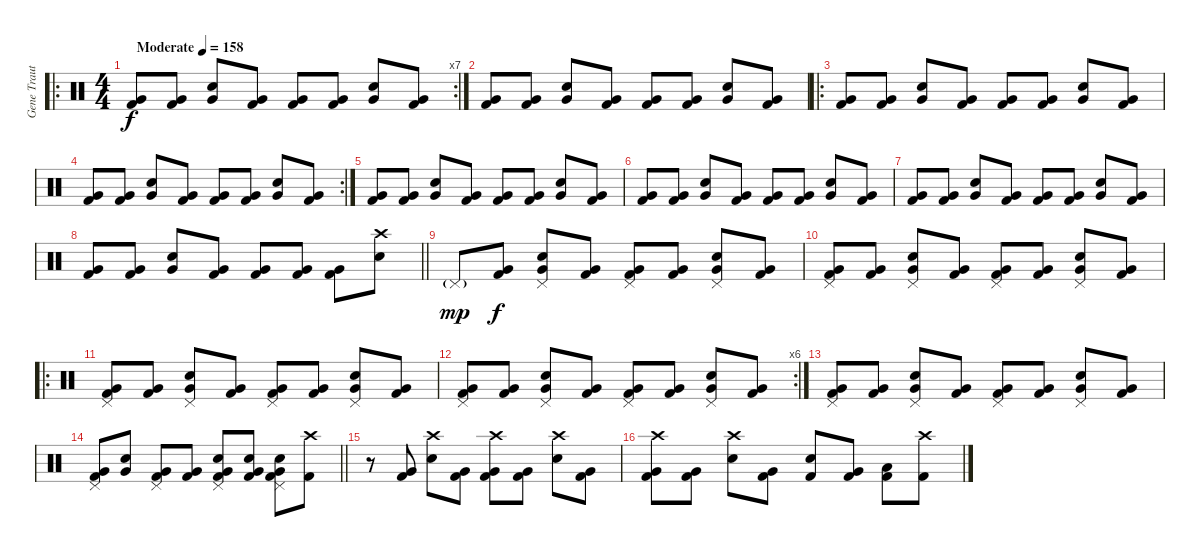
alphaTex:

\track ("Gene Trautmann" "Gene Traut") {instrument percussion}
\staff {score}
\articulation defaults
\ro
\rc 7
\ts (4 4)
\tempo (158 "Moderate")
\clef neutral
\ks c
("Very Low Tom (hit)" "Kick (hit) 2").8{dy f volume 9} ("Very Low Tom (hit)" "Kick (hit) 2").8 ("Electric Snare (hit)" "Very Low Tom (hit)").8 ("Very Low Tom (hit)" "Kick (hit) 2").8 ("Very Low Tom (hit)" "Kick (hit) 2").8 ("Very Low Tom (hit)" "Kick (hit) 2").8 ("Electric Snare (hit)" "Very Low Tom (hit)").8 ("Very Low Tom (hit)" "Kick (hit) 2").8 |
("Very Low Tom (hit)" "Kick (hit) 2").8 ("Very Low Tom (hit)" "Kick (hit) 2").8 ("Electric Snare (hit)" "Very Low Tom (hit)").8 ("Very Low Tom (hit)" "Kick (hit) 2").8 ("Very Low Tom (hit)" "Kick (hit) 2").8 ("Very Low Tom (hit)" "Kick (hit) 2").8 ("Electric Snare (hit)" "Very Low Tom (hit)").8 ("Very Low Tom (hit)" "Kick (hit) 2").8 |
\ro
("Very Low Tom (hit)" "Kick (hit) 2").8 ("Very Low Tom (hit)" "Kick (hit) 2").8 ("Electric Snare (hit)" "Very Low Tom (hit)").8 ("Very Low Tom (hit)" "Kick (hit) 2").8 ("Very Low Tom (hit)" "Kick (hit) 2").8 ("Very Low Tom (hit)" "Kick (hit) 2").8 ("Electric Snare (hit)" "Very Low Tom (hit)").8 ("Very Low Tom (hit)" "Kick (hit) 2").8 |
\rc 2
("Very Low Tom (hit)" "Kick (hit) 2").8 ("Very Low Tom (hit)" "Kick (hit) 2").8 ("Electric Snare (hit)" "Very Low Tom (hit)").8 ("Very Low Tom (hit)" "Kick (hit) 2").8 ("Very Low Tom (hit)" "Kick (hit) 2").8 ("Very Low Tom (hit)" "Kick (hit) 2").8 ("Electric Snare (hit)" "Very Low Tom (hit)").8 ("Very Low Tom (hit)" "Kick (hit) 2").8 |
("Very Low Tom (hit)" "Kick (hit) 2").8 ("Very Low Tom (hit)" "Kick (hit) 2").8 ("Electric Snare (hit)" "Very Low Tom (hit)").8 ("Very Low Tom (hit)" "Kick (hit) 2").8 ("Very Low Tom (hit)" "Kick (hit) 2").8 ("Very Low Tom (hit)" "Kick (hit) 2").8 ("Electric Snare (hit)" "Very Low Tom (hit)").8 ("Very Low Tom (hit)" "Kick (hit) 2").8 |
("Very Low Tom (hit)" "Kick (hit) 2").8 ("Very Low Tom (hit)" "Kick (hit) 2").8 ("Electric Snare (hit)" "Very Low Tom (hit)").8 ("Very Low Tom (hit)" "Kick (hit) 2").8 ("Very Low Tom (hit)" "Kick (hit) 2").8 ("Very Low Tom (hit)" "Kick (hit) 2").8 ("Electric Snare (hit)" "Very Low Tom (hit)").8 ("Very Low Tom (hit)" "Kick (hit) 2").8 |
("Very Low Tom (hit)" "Kick (hit) 2").8 ("Very Low Tom (hit)" "Kick (hit) 2").8 ("Electric Snare (hit)" "Very Low Tom (hit)").8 ("Very Low Tom (hit)" "Kick (hit) 2").8 ("Very Low Tom (hit)" "Kick (hit) 2").8 ("Very Low Tom (hit)" "Kick (hit) 2").8 ("Electric Snare (hit)" "Very Low Tom (hit)").8 ("Very Low Tom (hit)" "Kick (hit) 2").8 |
\barLineRight lightlight
("Very Low Tom (hit)" "Kick (hit) 2").8 ("Very Low Tom (hit)" "Kick (hit) 2").8 ("Electric Snare (hit)" "Very Low Tom (hit)").8 ("Very Low Tom (hit)" "Kick (hit) 2").8 ("Very Low Tom (hit)" "Kick (hit) 2").8 ("Very Low Tom (hit)" "Kick (hit) 2").8 ("Very Low Tom (hit)" "Kick (hit) 2").8 ("Crash high (hit)" "Electric Snare (hit)").8{volume 15} |
\section ("" "")
"Pedal Hi-Hat (hit)"{g}.8{dy mp} ("Very Low Tom (hit)" "Kick (hit) 2").8{dy f} ("Pedal Hi-Hat (hit)" "Electric Snare (hit)" "Very Low Tom (hit)").8 ("Very Low Tom (hit)" "Kick (hit) 2").8 ("Pedal Hi-Hat (hit)" "Very Low Tom (hit)" "Kick (hit) 2").8 ("Very Low Tom (hit)" "Kick (hit) 2").8 ("Pedal Hi-Hat (hit)" "Electric Snare (hit)" "Very Low Tom (hit)").8 ("Very Low Tom (hit)" "Kick (hit) 2").8 |
("Pedal Hi-Hat (hit)" "Very Low Tom (hit)" "Kick (hit) 2").8 ("Very Low Tom (hit)" "Kick (hit) 2").8 ("Pedal Hi-Hat (hit)" "Electric Snare (hit)" "Very Low Tom (hit)").8 ("Very Low Tom (hit)" "Kick (hit) 2").8 ("Pedal Hi-Hat (hit)" "Very Low Tom (hit)" "Kick (hit) 2").8 ("Very Low Tom (hit)" "Kick (hit) 2").8 ("Pedal Hi-Hat (hit)" "Electric Snare (hit)" "Very Low Tom (hit)").8 ("Very Low Tom (hit)" "Kick (hit) 2").8 |
\ro
("Pedal Hi-Hat (hit)" "Very Low Tom (hit)" "Kick (hit) 2").8 ("Very Low Tom (hit)" "Kick (hit) 2").8 ("Pedal Hi-Hat (hit)" "Electric Snare (hit)" "Very Low Tom (hit)").8 ("Very Low Tom (hit)" "Kick (hit) 2").8 ("Pedal Hi-Hat (hit)" "Very Low Tom (hit)" "Kick (hit) 2").8 ("Very Low Tom (hit)" "Kick (hit) 2").8 ("Pedal Hi-Hat (hit)" "Electric Snare (hit)" "Very Low Tom (hit)").8 ("Very Low Tom (hit)" "Kick (hit) 2").8 |
\rc 6
("Pedal Hi-Hat (hit)" "Very Low Tom (hit)" "Kick (hit) 2").8 ("Very Low Tom (hit)" "Kick (hit) 2").8 ("Pedal Hi-Hat (hit)" "Electric Snare (hit)" "Very Low Tom (hit)").8 ("Very Low Tom (hit)" "Kick (hit) 2").8 ("Pedal Hi-Hat (hit)" "Very Low Tom (hit)" "Kick (hit) 2").8 ("Very Low Tom (hit)" "Kick (hit) 2").8 ("Pedal Hi-Hat (hit)" "Electric Snare (hit)" "Very Low Tom (hit)").8 ("Very Low Tom (hit)" "Kick (hit) 2").8 |
("Pedal Hi-Hat (hit)" "Very Low Tom (hit)" "Kick (hit) 2").8 ("Very Low Tom (hit)" "Kick (hit) 2").8 ("Pedal Hi-Hat (hit)" "Electric Snare (hit)" "Very Low Tom (hit)").8 ("Very Low Tom (hit)" "Kick (hit) 2").8 ("Pedal Hi-Hat (hit)" "Very Low Tom (hit)" "Kick (hit) 2").8 ("Very Low Tom (hit)" "Kick (hit) 2").8 ("Pedal Hi-Hat (hit)" "Electric Snare (hit)" "Very Low Tom (hit)").8 ("Very Low Tom (hit)" "Kick (hit) 2").8 |
\barLineRight lightlight
("Pedal Hi-Hat (hit)" "Very Low Tom (hit)" "Kick (hit) 2").8 ("Electric Snare (hit)" "Very Low Tom (hit)").8 ("Pedal Hi-Hat (hit)" "Very Low Tom (hit)" "Kick (hit) 2").8 ("Very Low Tom (hit)" "Kick (hit) 2").8 ("Pedal Hi-Hat (hit)" "Electric Snare (hit)" "Very Low Tom (hit)" "Kick (hit) 2").8 ("Electric Snare (hit)" "Very Low Tom (hit)" "Kick (hit) 2").8 ("Pedal Hi-Hat (hit)" "Electric Snare (hit)" "Very Low Tom (hit)" "Kick (hit) 2").8 ("Crash high (hit)" "Kick (hit) 2").8 |
\section ("" "")
r.8 ("Very Low Tom (hit)" "Kick (hit) 2").8 ("Crash high (hit)" "Electric Snare (hit)").8 ("Very Low Tom (hit)" "Kick (hit) 2").8 ("Crash high (hit)" "Very Low Tom (hit)" "Kick (hit) 2").8 ("Very Low Tom (hit)" "Kick (hit) 2").8 ("Crash high (hit)" "Electric Snare (hit)").8 ("Very Low Tom (hit)" "Kick (hit) 2").8 |
("Crash high (hit)" "Very Low Tom (hit)" "Kick (hit) 2").8 ("Very Low Tom (hit)" "Kick (hit) 2").8 ("Crash high (hit)" "Electric Snare (hit)").8 ("Very Low Tom (hit)" "Kick (hit) 2").8 ("Electric Snare (hit)" "Kick (hit) 2").8 ("Very Low Tom (hit)" "Kick (hit) 2").8 ("Low Floor Tom (hit)" "Kick (hit) 2").8 ("Crash high (hit)" "Kick (hit) 2").8
